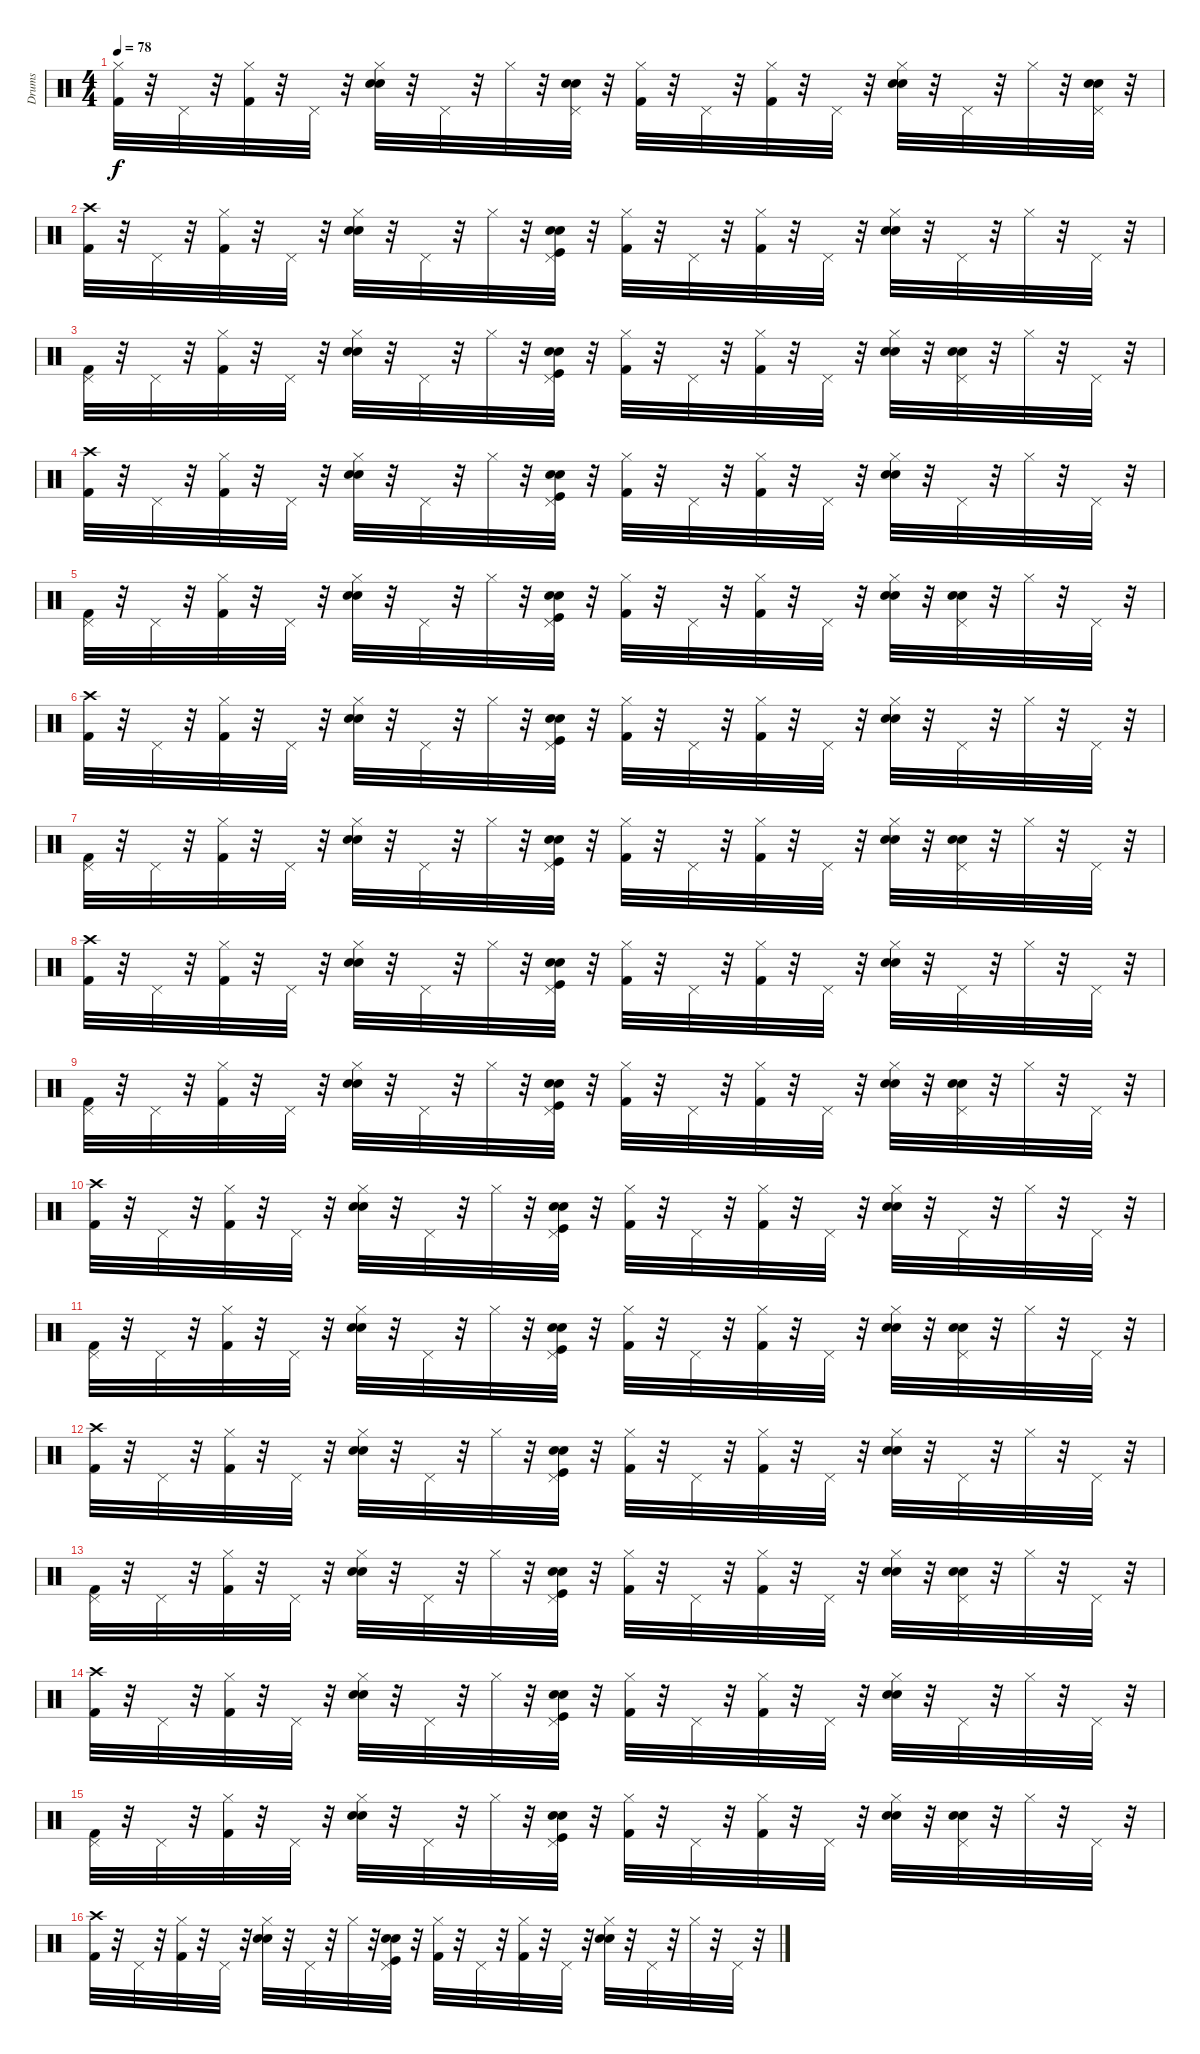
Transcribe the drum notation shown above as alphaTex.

\track ("Drums" "Drums") {instrument percussion}
\staff {score}
\articulation defaults
\ts (4 4)
\tempo 78
\clef neutral
\ks c
("Hi-Hat (closed)" "Kick (hit) 2").32{dy f} r.32 "Pedal Hi-Hat (hit)".32 r.32 ("Kick (hit) 2" "Hi-Hat (closed)").32 r.32 "Pedal Hi-Hat (hit)".32 r.32 ("Snare (hit) 2" "Snare (hit) 2" "Hi-Hat (closed)").32 r.32 "Pedal Hi-Hat (hit)".32 r.32 "Hi-Hat (closed)".32 r.32 ("Snare (hit) 2" "Snare (hit) 2" "Pedal Hi-Hat (hit)").32 r.32 ("Kick (hit) 2" "Hi-Hat (closed)").32 r.32 "Pedal Hi-Hat (hit)".32 r.32 ("Kick (hit) 2" "Hi-Hat (closed)").32 r.32 "Pedal Hi-Hat (hit)".32 r.32 ("Snare (hit) 2" "Snare (hit) 2" "Hi-Hat (closed)").32 r.32 "Pedal Hi-Hat (hit)".32 r.32 "Hi-Hat (closed)".32 r.32 ("Pedal Hi-Hat (hit)" "Snare (hit) 2" "Snare (hit) 2").32 r.32 |
("Crash high (hit)" "Kick (hit) 2").32 r.32 "Pedal Hi-Hat (hit)".32 r.32 ("Hi-Hat (closed)" "Kick (hit) 2").32 r.32 "Pedal Hi-Hat (hit)".32 r.32 ("Hi-Hat (closed)" "Hand Clap (hit)" "Snare (hit) 2").32 r.32 "Pedal Hi-Hat (hit)".32 r.32 "Hi-Hat (closed)".32 r.32 ("Hand Clap (hit)" "Snare (hit) 2" "Pedal Hi-Hat (hit)" "Kick (hit)").32 r.32 ("Hi-Hat (closed)" "Kick (hit) 2").32 r.32 "Pedal Hi-Hat (hit)".32 r.32 ("Hi-Hat (closed)" "Kick (hit) 2").32 r.32 "Pedal Hi-Hat (hit)".32 r.32 ("Hi-Hat (closed)" "Hand Clap (hit)" "Snare (hit) 2").32 r.32 "Pedal Hi-Hat (hit)".32 r.32 "Hi-Hat (closed)".32 r.32 "Pedal Hi-Hat (hit)".32 r.32 |
("Pedal Hi-Hat (hit)" "Kick (hit) 2").32 r.32 "Pedal Hi-Hat (hit)".32 r.32 ("Hi-Hat (closed)" "Kick (hit) 2").32 r.32 "Pedal Hi-Hat (hit)".32 r.32 ("Hi-Hat (closed)" "Hand Clap (hit)" "Snare (hit) 2").32 r.32 "Pedal Hi-Hat (hit)".32 r.32 "Hi-Hat (closed)".32 r.32 ("Hand Clap (hit)" "Snare (hit) 2" "Pedal Hi-Hat (hit)" "Kick (hit)").32 r.32 ("Hi-Hat (closed)" "Kick (hit) 2").32 r.32 "Pedal Hi-Hat (hit)".32 r.32 ("Hi-Hat (closed)" "Kick (hit) 2").32 r.32 "Pedal Hi-Hat (hit)".32 r.32 ("Hi-Hat (closed)" "Hand Clap (hit)" "Snare (hit) 2").32 r.32 ("Hand Clap (hit)" "Snare (hit) 2" "Pedal Hi-Hat (hit)").32 r.32 "Hi-Hat (closed)".32 r.32 "Pedal Hi-Hat (hit)".32 r.32 |
("Crash high (hit)" "Kick (hit) 2").32 r.32 "Pedal Hi-Hat (hit)".32 r.32 ("Hi-Hat (closed)" "Kick (hit) 2").32 r.32 "Pedal Hi-Hat (hit)".32 r.32 ("Hi-Hat (closed)" "Hand Clap (hit)" "Snare (hit) 2").32 r.32 "Pedal Hi-Hat (hit)".32 r.32 "Hi-Hat (closed)".32 r.32 ("Hand Clap (hit)" "Snare (hit) 2" "Pedal Hi-Hat (hit)" "Kick (hit)").32 r.32 ("Hi-Hat (closed)" "Kick (hit) 2").32 r.32 "Pedal Hi-Hat (hit)".32 r.32 ("Hi-Hat (closed)" "Kick (hit) 2").32 r.32 "Pedal Hi-Hat (hit)".32 r.32 ("Hi-Hat (closed)" "Hand Clap (hit)" "Snare (hit) 2").32 r.32 "Pedal Hi-Hat (hit)".32 r.32 "Hi-Hat (closed)".32 r.32 "Pedal Hi-Hat (hit)".32 r.32 |
("Pedal Hi-Hat (hit)" "Kick (hit) 2").32 r.32 "Pedal Hi-Hat (hit)".32 r.32 ("Hi-Hat (closed)" "Kick (hit) 2").32 r.32 "Pedal Hi-Hat (hit)".32 r.32 ("Hi-Hat (closed)" "Hand Clap (hit)" "Snare (hit) 2").32 r.32 "Pedal Hi-Hat (hit)".32 r.32 "Hi-Hat (closed)".32 r.32 ("Hand Clap (hit)" "Snare (hit) 2" "Pedal Hi-Hat (hit)" "Kick (hit)").32 r.32 ("Hi-Hat (closed)" "Kick (hit) 2").32 r.32 "Pedal Hi-Hat (hit)".32 r.32 ("Hi-Hat (closed)" "Kick (hit) 2").32 r.32 "Pedal Hi-Hat (hit)".32 r.32 ("Hi-Hat (closed)" "Hand Clap (hit)" "Snare (hit) 2").32 r.32 ("Hand Clap (hit)" "Snare (hit) 2" "Pedal Hi-Hat (hit)").32 r.32 "Hi-Hat (closed)".32 r.32 "Pedal Hi-Hat (hit)".32 r.32 |
("Crash high (hit)" "Kick (hit) 2").32 r.32 "Pedal Hi-Hat (hit)".32 r.32 ("Hi-Hat (closed)" "Kick (hit) 2").32 r.32 "Pedal Hi-Hat (hit)".32 r.32 ("Hi-Hat (closed)" "Hand Clap (hit)" "Snare (hit) 2").32 r.32 "Pedal Hi-Hat (hit)".32 r.32 "Hi-Hat (closed)".32 r.32 ("Hand Clap (hit)" "Snare (hit) 2" "Pedal Hi-Hat (hit)" "Kick (hit)").32 r.32 ("Hi-Hat (closed)" "Kick (hit) 2").32 r.32 "Pedal Hi-Hat (hit)".32 r.32 ("Hi-Hat (closed)" "Kick (hit) 2").32 r.32 "Pedal Hi-Hat (hit)".32 r.32 ("Hi-Hat (closed)" "Hand Clap (hit)" "Snare (hit) 2").32 r.32 "Pedal Hi-Hat (hit)".32 r.32 "Hi-Hat (closed)".32 r.32 "Pedal Hi-Hat (hit)".32 r.32 |
("Pedal Hi-Hat (hit)" "Kick (hit) 2").32 r.32 "Pedal Hi-Hat (hit)".32 r.32 ("Hi-Hat (closed)" "Kick (hit) 2").32 r.32 "Pedal Hi-Hat (hit)".32 r.32 ("Hi-Hat (closed)" "Hand Clap (hit)" "Snare (hit) 2").32 r.32 "Pedal Hi-Hat (hit)".32 r.32 "Hi-Hat (closed)".32 r.32 ("Hand Clap (hit)" "Snare (hit) 2" "Pedal Hi-Hat (hit)" "Kick (hit)").32 r.32 ("Hi-Hat (closed)" "Kick (hit) 2").32 r.32 "Pedal Hi-Hat (hit)".32 r.32 ("Hi-Hat (closed)" "Kick (hit) 2").32 r.32 "Pedal Hi-Hat (hit)".32 r.32 ("Hi-Hat (closed)" "Hand Clap (hit)" "Snare (hit) 2").32 r.32 ("Hand Clap (hit)" "Snare (hit) 2" "Pedal Hi-Hat (hit)").32 r.32 "Hi-Hat (closed)".32 r.32 "Pedal Hi-Hat (hit)".32 r.32 |
("Crash high (hit)" "Kick (hit) 2").32 r.32 "Pedal Hi-Hat (hit)".32 r.32 ("Hi-Hat (closed)" "Kick (hit) 2").32 r.32 "Pedal Hi-Hat (hit)".32 r.32 ("Hi-Hat (closed)" "Hand Clap (hit)" "Snare (hit) 2").32 r.32 "Pedal Hi-Hat (hit)".32 r.32 "Hi-Hat (closed)".32 r.32 ("Hand Clap (hit)" "Snare (hit) 2" "Pedal Hi-Hat (hit)" "Kick (hit)").32 r.32 ("Hi-Hat (closed)" "Kick (hit) 2").32 r.32 "Pedal Hi-Hat (hit)".32 r.32 ("Hi-Hat (closed)" "Kick (hit) 2").32 r.32 "Pedal Hi-Hat (hit)".32 r.32 ("Hi-Hat (closed)" "Hand Clap (hit)" "Snare (hit) 2").32 r.32 "Pedal Hi-Hat (hit)".32 r.32 "Hi-Hat (closed)".32 r.32 "Pedal Hi-Hat (hit)".32 r.32 |
("Pedal Hi-Hat (hit)" "Kick (hit) 2").32 r.32 "Pedal Hi-Hat (hit)".32 r.32 ("Hi-Hat (closed)" "Kick (hit) 2").32 r.32 "Pedal Hi-Hat (hit)".32 r.32 ("Hi-Hat (closed)" "Hand Clap (hit)" "Snare (hit) 2").32 r.32 "Pedal Hi-Hat (hit)".32 r.32 "Hi-Hat (closed)".32 r.32 ("Hand Clap (hit)" "Snare (hit) 2" "Pedal Hi-Hat (hit)" "Kick (hit)").32 r.32 ("Hi-Hat (closed)" "Kick (hit) 2").32 r.32 "Pedal Hi-Hat (hit)".32 r.32 ("Hi-Hat (closed)" "Kick (hit) 2").32 r.32 "Pedal Hi-Hat (hit)".32 r.32 ("Hi-Hat (closed)" "Hand Clap (hit)" "Snare (hit) 2").32 r.32 ("Hand Clap (hit)" "Snare (hit) 2" "Pedal Hi-Hat (hit)").32 r.32 "Hi-Hat (closed)".32 r.32 "Pedal Hi-Hat (hit)".32 r.32 |
("Crash high (hit)" "Kick (hit) 2").32 r.32 "Pedal Hi-Hat (hit)".32 r.32 ("Hi-Hat (closed)" "Kick (hit) 2").32 r.32 "Pedal Hi-Hat (hit)".32 r.32 ("Hi-Hat (closed)" "Hand Clap (hit)" "Snare (hit) 2").32 r.32 "Pedal Hi-Hat (hit)".32 r.32 "Hi-Hat (closed)".32 r.32 ("Hand Clap (hit)" "Snare (hit) 2" "Pedal Hi-Hat (hit)" "Kick (hit)").32 r.32 ("Hi-Hat (closed)" "Kick (hit) 2").32 r.32 "Pedal Hi-Hat (hit)".32 r.32 ("Hi-Hat (closed)" "Kick (hit) 2").32 r.32 "Pedal Hi-Hat (hit)".32 r.32 ("Hi-Hat (closed)" "Hand Clap (hit)" "Snare (hit) 2").32 r.32 "Pedal Hi-Hat (hit)".32 r.32 "Hi-Hat (closed)".32 r.32 "Pedal Hi-Hat (hit)".32 r.32 |
("Pedal Hi-Hat (hit)" "Kick (hit) 2").32 r.32 "Pedal Hi-Hat (hit)".32 r.32 ("Hi-Hat (closed)" "Kick (hit) 2").32 r.32 "Pedal Hi-Hat (hit)".32 r.32 ("Hi-Hat (closed)" "Hand Clap (hit)" "Snare (hit) 2").32 r.32 "Pedal Hi-Hat (hit)".32 r.32 "Hi-Hat (closed)".32 r.32 ("Hand Clap (hit)" "Snare (hit) 2" "Pedal Hi-Hat (hit)" "Kick (hit)").32 r.32 ("Hi-Hat (closed)" "Kick (hit) 2").32 r.32 "Pedal Hi-Hat (hit)".32 r.32 ("Hi-Hat (closed)" "Kick (hit) 2").32 r.32 "Pedal Hi-Hat (hit)".32 r.32 ("Hi-Hat (closed)" "Hand Clap (hit)" "Snare (hit) 2").32 r.32 ("Hand Clap (hit)" "Snare (hit) 2" "Pedal Hi-Hat (hit)").32 r.32 "Hi-Hat (closed)".32 r.32 "Pedal Hi-Hat (hit)".32 r.32 |
("Crash high (hit)" "Kick (hit) 2").32 r.32 "Pedal Hi-Hat (hit)".32 r.32 ("Hi-Hat (closed)" "Kick (hit) 2").32 r.32 "Pedal Hi-Hat (hit)".32 r.32 ("Hi-Hat (closed)" "Hand Clap (hit)" "Snare (hit) 2").32 r.32 "Pedal Hi-Hat (hit)".32 r.32 "Hi-Hat (closed)".32 r.32 ("Hand Clap (hit)" "Snare (hit) 2" "Pedal Hi-Hat (hit)" "Kick (hit)").32 r.32 ("Hi-Hat (closed)" "Kick (hit) 2").32 r.32 "Pedal Hi-Hat (hit)".32 r.32 ("Hi-Hat (closed)" "Kick (hit) 2").32 r.32 "Pedal Hi-Hat (hit)".32 r.32 ("Hi-Hat (closed)" "Hand Clap (hit)" "Snare (hit) 2").32 r.32 "Pedal Hi-Hat (hit)".32 r.32 "Hi-Hat (closed)".32 r.32 "Pedal Hi-Hat (hit)".32 r.32 |
("Pedal Hi-Hat (hit)" "Kick (hit) 2").32 r.32 "Pedal Hi-Hat (hit)".32 r.32 ("Hi-Hat (closed)" "Kick (hit) 2").32 r.32 "Pedal Hi-Hat (hit)".32 r.32 ("Hi-Hat (closed)" "Hand Clap (hit)" "Snare (hit) 2").32 r.32 "Pedal Hi-Hat (hit)".32 r.32 "Hi-Hat (closed)".32 r.32 ("Hand Clap (hit)" "Snare (hit) 2" "Pedal Hi-Hat (hit)" "Kick (hit)").32 r.32 ("Hi-Hat (closed)" "Kick (hit) 2").32 r.32 "Pedal Hi-Hat (hit)".32 r.32 ("Hi-Hat (closed)" "Kick (hit) 2").32 r.32 "Pedal Hi-Hat (hit)".32 r.32 ("Hi-Hat (closed)" "Hand Clap (hit)" "Snare (hit) 2").32 r.32 ("Hand Clap (hit)" "Snare (hit) 2" "Pedal Hi-Hat (hit)").32 r.32 "Hi-Hat (closed)".32 r.32 "Pedal Hi-Hat (hit)".32 r.32 |
("Crash high (hit)" "Kick (hit) 2").32 r.32 "Pedal Hi-Hat (hit)".32 r.32 ("Hi-Hat (closed)" "Kick (hit) 2").32 r.32 "Pedal Hi-Hat (hit)".32 r.32 ("Hi-Hat (closed)" "Hand Clap (hit)" "Snare (hit) 2").32 r.32 "Pedal Hi-Hat (hit)".32 r.32 "Hi-Hat (closed)".32 r.32 ("Hand Clap (hit)" "Snare (hit) 2" "Pedal Hi-Hat (hit)" "Kick (hit)").32 r.32 ("Hi-Hat (closed)" "Kick (hit) 2").32 r.32 "Pedal Hi-Hat (hit)".32 r.32 ("Hi-Hat (closed)" "Kick (hit) 2").32 r.32 "Pedal Hi-Hat (hit)".32 r.32 ("Hi-Hat (closed)" "Hand Clap (hit)" "Snare (hit) 2").32 r.32 "Pedal Hi-Hat (hit)".32 r.32 "Hi-Hat (closed)".32 r.32 "Pedal Hi-Hat (hit)".32 r.32 |
("Pedal Hi-Hat (hit)" "Kick (hit) 2").32 r.32 "Pedal Hi-Hat (hit)".32 r.32 ("Hi-Hat (closed)" "Kick (hit) 2").32 r.32 "Pedal Hi-Hat (hit)".32 r.32 ("Hi-Hat (closed)" "Hand Clap (hit)" "Snare (hit) 2").32 r.32 "Pedal Hi-Hat (hit)".32 r.32 "Hi-Hat (closed)".32 r.32 ("Hand Clap (hit)" "Snare (hit) 2" "Pedal Hi-Hat (hit)" "Kick (hit)").32 r.32 ("Hi-Hat (closed)" "Kick (hit) 2").32 r.32 "Pedal Hi-Hat (hit)".32 r.32 ("Hi-Hat (closed)" "Kick (hit) 2").32 r.32 "Pedal Hi-Hat (hit)".32 r.32 ("Hi-Hat (closed)" "Hand Clap (hit)" "Snare (hit) 2").32 r.32 ("Hand Clap (hit)" "Snare (hit) 2" "Pedal Hi-Hat (hit)").32 r.32 "Hi-Hat (closed)".32 r.32 "Pedal Hi-Hat (hit)".32 r.32 |
("Crash high (hit)" "Kick (hit) 2").32 r.32 "Pedal Hi-Hat (hit)".32 r.32 ("Hi-Hat (closed)" "Kick (hit) 2").32 r.32 "Pedal Hi-Hat (hit)".32 r.32 ("Hi-Hat (closed)" "Hand Clap (hit)" "Snare (hit) 2").32 r.32 "Pedal Hi-Hat (hit)".32 r.32 "Hi-Hat (closed)".32 r.32 ("Hand Clap (hit)" "Snare (hit) 2" "Pedal Hi-Hat (hit)" "Kick (hit)").32 r.32 ("Hi-Hat (closed)" "Kick (hit) 2").32 r.32 "Pedal Hi-Hat (hit)".32 r.32 ("Hi-Hat (closed)" "Kick (hit) 2").32 r.32 "Pedal Hi-Hat (hit)".32 r.32 ("Hi-Hat (closed)" "Hand Clap (hit)" "Snare (hit) 2").32 r.32 "Pedal Hi-Hat (hit)".32 r.32 "Hi-Hat (closed)".32 r.32 "Pedal Hi-Hat (hit)".32 r.32
